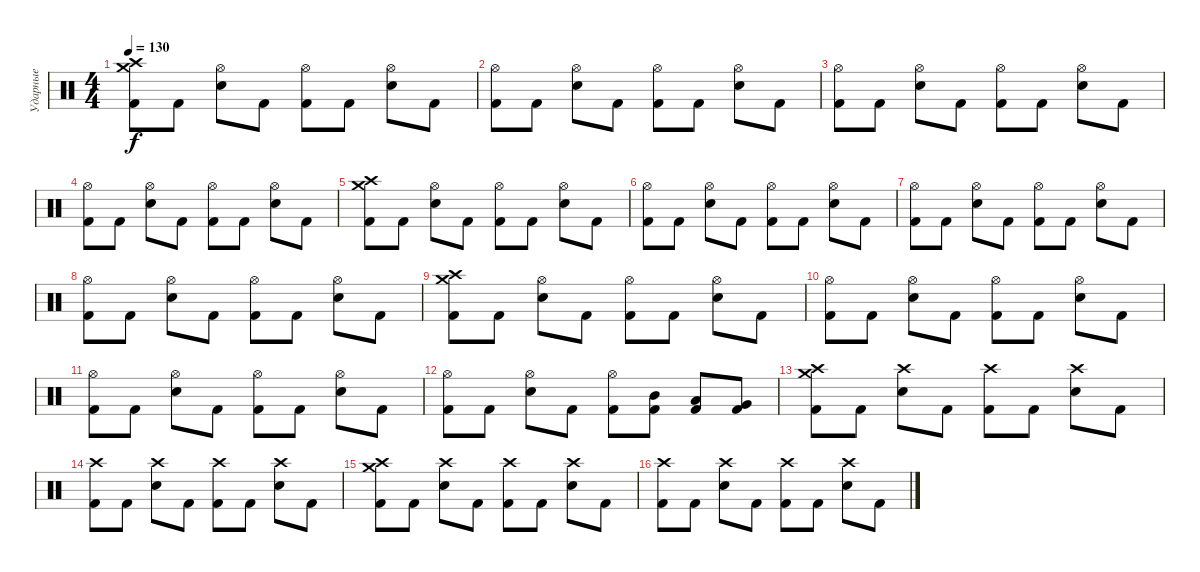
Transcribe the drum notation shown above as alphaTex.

\track ("Ударные" "Ударные") {instrument percussion}
\staff {score}
\articulation defaults
\ts (4 4)
\tempo 130
\clef neutral
\ks c
("Kick (hit) 2" "Crash medium (hit)" "Crash high (hit)").8{dy f} "Kick (hit) 2".8 ("Electric Snare (hit)" "Hi-Hat (open)").8 "Kick (hit) 2".8 ("Kick (hit) 2" "Hi-Hat (open)").8 "Kick (hit) 2".8 ("Electric Snare (hit)" "Hi-Hat (open)").8 "Kick (hit) 2".8 |
("Kick (hit) 2" "Hi-Hat (open)").8 "Kick (hit) 2".8 ("Electric Snare (hit)" "Hi-Hat (open)").8 "Kick (hit) 2".8 ("Kick (hit) 2" "Hi-Hat (open)").8 "Kick (hit) 2".8 ("Electric Snare (hit)" "Hi-Hat (open)").8 "Kick (hit) 2".8 |
("Kick (hit) 2" "Hi-Hat (open)").8 "Kick (hit) 2".8 ("Electric Snare (hit)" "Hi-Hat (open)").8 "Kick (hit) 2".8 ("Kick (hit) 2" "Hi-Hat (open)").8 "Kick (hit) 2".8 ("Electric Snare (hit)" "Hi-Hat (open)").8 "Kick (hit) 2".8 |
("Kick (hit) 2" "Hi-Hat (open)").8 "Kick (hit) 2".8 ("Electric Snare (hit)" "Hi-Hat (open)").8 "Kick (hit) 2".8 ("Kick (hit) 2" "Hi-Hat (open)").8 "Kick (hit) 2".8 ("Electric Snare (hit)" "Hi-Hat (open)").8 "Kick (hit) 2".8 |
("Kick (hit) 2" "Crash medium (hit)" "Crash high (hit)").8 "Kick (hit) 2".8 ("Electric Snare (hit)" "Hi-Hat (open)").8 "Kick (hit) 2".8 ("Kick (hit) 2" "Hi-Hat (open)").8 "Kick (hit) 2".8 ("Electric Snare (hit)" "Hi-Hat (open)").8 "Kick (hit) 2".8 |
("Kick (hit) 2" "Hi-Hat (open)").8 "Kick (hit) 2".8 ("Electric Snare (hit)" "Hi-Hat (open)").8 "Kick (hit) 2".8 ("Kick (hit) 2" "Hi-Hat (open)").8 "Kick (hit) 2".8 ("Electric Snare (hit)" "Hi-Hat (open)").8 "Kick (hit) 2".8 |
("Kick (hit) 2" "Hi-Hat (open)").8 "Kick (hit) 2".8 ("Electric Snare (hit)" "Hi-Hat (open)").8 "Kick (hit) 2".8 ("Kick (hit) 2" "Hi-Hat (open)").8 "Kick (hit) 2".8 ("Electric Snare (hit)" "Hi-Hat (open)").8 "Kick (hit) 2".8 |
("Kick (hit) 2" "Hi-Hat (open)").8 "Kick (hit) 2".8 ("Electric Snare (hit)" "Hi-Hat (open)").8 "Kick (hit) 2".8 ("Kick (hit) 2" "Hi-Hat (open)").8 "Kick (hit) 2".8 ("Electric Snare (hit)" "Hi-Hat (open)").8 "Kick (hit) 2".8 |
("Kick (hit) 2" "Crash medium (hit)" "Crash high (hit)").8 "Kick (hit) 2".8 ("Electric Snare (hit)" "Hi-Hat (open)").8 "Kick (hit) 2".8 ("Kick (hit) 2" "Hi-Hat (open)").8 "Kick (hit) 2".8 ("Electric Snare (hit)" "Hi-Hat (open)").8 "Kick (hit) 2".8 |
("Kick (hit) 2" "Hi-Hat (open)").8 "Kick (hit) 2".8 ("Electric Snare (hit)" "Hi-Hat (open)").8 "Kick (hit) 2".8 ("Kick (hit) 2" "Hi-Hat (open)").8 "Kick (hit) 2".8 ("Electric Snare (hit)" "Hi-Hat (open)").8 "Kick (hit) 2".8 |
("Kick (hit) 2" "Hi-Hat (open)").8 "Kick (hit) 2".8 ("Electric Snare (hit)" "Hi-Hat (open)").8 "Kick (hit) 2".8 ("Kick (hit) 2" "Hi-Hat (open)").8 "Kick (hit) 2".8 ("Electric Snare (hit)" "Hi-Hat (open)").8 "Kick (hit) 2".8 |
("Kick (hit) 2" "Hi-Hat (open)").8 "Kick (hit) 2".8 ("Electric Snare (hit)" "Hi-Hat (open)").8 "Kick (hit) 2".8 ("Kick (hit) 2" "Hi-Hat (open)").8 ("Kick (hit) 2" "Mid Tom (hit)").8 ("Kick (hit) 2" "Low Tom (hit)").8 ("Kick (hit) 2" "Very Low Tom (hit)").8 |
("Kick (hit) 2" "Crash medium (hit)" "Crash high (hit)").8 "Kick (hit) 2".8 ("Electric Snare (hit)" "Crash high (hit)").8 "Kick (hit) 2".8 ("Kick (hit) 2" "Crash high (hit)").8 "Kick (hit) 2".8 ("Electric Snare (hit)" "Crash high (hit)").8 "Kick (hit) 2".8 |
("Kick (hit) 2" "Crash high (hit)").8 "Kick (hit) 2".8 ("Electric Snare (hit)" "Crash high (hit)").8 "Kick (hit) 2".8 ("Kick (hit) 2" "Crash high (hit)").8 "Kick (hit) 2".8 ("Electric Snare (hit)" "Crash high (hit)").8 "Kick (hit) 2".8 |
("Kick (hit) 2" "Crash medium (hit)" "Crash high (hit)").8 "Kick (hit) 2".8 ("Electric Snare (hit)" "Crash high (hit)").8 "Kick (hit) 2".8 ("Kick (hit) 2" "Crash high (hit)").8 "Kick (hit) 2".8 ("Electric Snare (hit)" "Crash high (hit)").8 "Kick (hit) 2".8 |
("Kick (hit) 2" "Crash high (hit)").8 "Kick (hit) 2".8 ("Electric Snare (hit)" "Crash high (hit)").8 "Kick (hit) 2".8 ("Kick (hit) 2" "Crash high (hit)").8 "Kick (hit) 2".8 ("Electric Snare (hit)" "Crash high (hit)").8 "Kick (hit) 2".8
